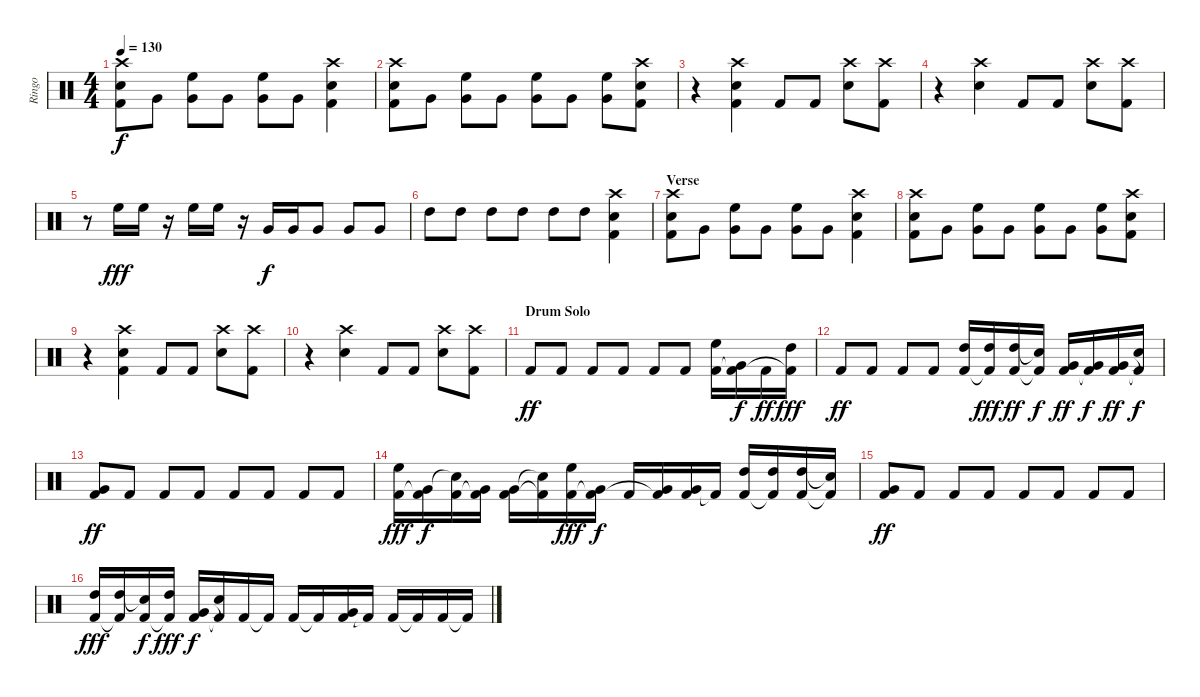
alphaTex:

\track ("Ringo" "Ringo") {instrument percussion}
\staff {score}
\articulation defaults
\ts (4 4)
\tempo 130
\clef neutral
\ks c
("Crash high (hit)" "Snare (hit) 2" "Kick (hit) 2").8{dy f} "Very Low Tom (hit)".8 ("High Floor Tom (hit)" "Very Low Tom (hit)").8 "Very Low Tom (hit)".8 ("High Floor Tom (hit)" "Very Low Tom (hit)").8 "Very Low Tom (hit)".8 ("Crash high (hit)" "Snare (hit) 2" "Kick (hit) 2").4 |
("Crash high (hit)" "Snare (hit) 2" "Kick (hit) 2").8 "Very Low Tom (hit)".8 ("High Floor Tom (hit)" "Very Low Tom (hit)").8 "Very Low Tom (hit)".8 ("High Floor Tom (hit)" "Very Low Tom (hit)").8 "Very Low Tom (hit)".8 ("High Floor Tom (hit)" "Very Low Tom (hit)").8 ("Crash high (hit)" "Snare (hit) 2" "Kick (hit) 2").8 |
r.4 ("Crash high (hit)" "Snare (hit) 2" "Kick (hit) 2").4 "Kick (hit) 2".8 "Kick (hit) 2".8 ("Crash high (hit)" "Snare (hit) 2").8 ("Crash high (hit)" "Kick (hit) 2").8 |
r.4 ("Crash high (hit)" "Snare (hit) 2").4 "Kick (hit) 2".8 "Kick (hit) 2".8 ("Crash high (hit)" "Snare (hit) 2").8 ("Crash high (hit)" "Kick (hit) 2").8 |
r.8 "High Floor Tom (hit)".16{dy fff} "High Floor Tom (hit)".16 r.16 "High Floor Tom (hit)".16 "High Floor Tom (hit)".16 r.16 "Very Low Tom (hit)".16{dy f} "Very Low Tom (hit)".16 "Very Low Tom (hit)".8 "Very Low Tom (hit)".8 "Very Low Tom (hit)".8 |
"High Tom (hit)".8 "High Tom (hit)".8 "High Tom (hit)".8 "High Tom (hit)".8 "High Tom (hit)".8 "High Tom (hit)".8 ("Crash high (hit)" "Snare (hit) 2" "Kick (hit) 2").4 |
\section ("" "Verse")
("Crash high (hit)" "Snare (hit) 2" "Kick (hit) 2").8 "Very Low Tom (hit)".8 ("High Floor Tom (hit)" "Very Low Tom (hit)").8 "Very Low Tom (hit)".8 ("High Floor Tom (hit)" "Very Low Tom (hit)").8 "Very Low Tom (hit)".8 ("Crash high (hit)" "Snare (hit) 2" "Kick (hit) 2").4 |
("Crash high (hit)" "Snare (hit) 2" "Kick (hit) 2").8 "Very Low Tom (hit)".8 ("High Floor Tom (hit)" "Very Low Tom (hit)").8 "Very Low Tom (hit)".8 ("High Floor Tom (hit)" "Very Low Tom (hit)").8 "Very Low Tom (hit)".8 ("High Floor Tom (hit)" "Very Low Tom (hit)").8 ("Crash high (hit)" "Snare (hit) 2" "Kick (hit) 2").8 |
r.4 ("Crash high (hit)" "Snare (hit) 2" "Kick (hit) 2").4 "Kick (hit) 2".8 "Kick (hit) 2".8 ("Crash high (hit)" "Snare (hit) 2").8 ("Crash high (hit)" "Kick (hit) 2").8 |
r.4 ("Crash high (hit)" "Snare (hit) 2").4 "Kick (hit) 2".8 "Kick (hit) 2".8 ("Crash high (hit)" "Snare (hit) 2").8 ("Crash high (hit)" "Kick (hit) 2").8 |
\section ("" "Drum Solo")
"Kick (hit) 2".8{dy ff} "Kick (hit) 2".8 "Kick (hit) 2".8 "Kick (hit) 2".8 "Kick (hit) 2".8 "Kick (hit) 2".8 ("High Floor Tom (hit)" "Kick (hit) 2").16 ("Very Low Tom (hit)" "Kick (hit) 2"{t}).16{dy f} "Kick (hit) 2".16{dy ff} ("High Tom (hit)" "Kick (hit) 2"{t}).16{dy fff} |
"Kick (hit) 2".8{dy ff} "Kick (hit) 2".8 "Kick (hit) 2".8 "Kick (hit) 2".8 ("High Tom (hit)" "Kick (hit) 2").16 ("High Tom (hit)" "Kick (hit) 2"{t}).16{dy fff} ("High Tom (hit)" "Kick (hit) 2").16{dy ff} ("Snare (hit)"{t} "Kick (hit) 2"{t}).16{dy f} ("Very Low Tom (hit)" "Kick (hit) 2").16{dy ff} ("Very Low Tom (hit)" "Kick (hit) 2"{t}).16{dy f} ("Very Low Tom (hit)" "Kick (hit) 2").16{dy ff} ("Snare (hit)"{t} "Kick (hit) 2"{t}).16{dy f} |
("Very Low Tom (hit)" "Kick (hit) 2").8{dy ff} "Kick (hit) 2".8 "Kick (hit) 2".8 "Kick (hit) 2".8 "Kick (hit) 2".8 "Kick (hit) 2".8 "Kick (hit) 2".8 "Kick (hit) 2".8 |
("High Floor Tom (hit)" "Kick (hit) 2").16{dy fff} ("Very Low Tom (hit)" "Kick (hit) 2"{t}).16{dy f} ("Snare (hit)"{t} "Kick (hit) 2").16 ("Very Low Tom (hit)" "Kick (hit) 2"{t}).16 ("Very Low Tom (hit)" "Kick (hit) 2").16 ("Snare (hit)"{t} "Kick (hit) 2"{t}).16 ("High Floor Tom (hit)" "Kick (hit) 2").16{dy fff} ("Very Low Tom (hit)" "Kick (hit) 2"{t}).16{dy f} "Kick (hit) 2".16 ("Very Low Tom (hit)" "Kick (hit) 2"{t}).16 ("Very Low Tom (hit)" "Kick (hit) 2").16 "Kick (hit) 2"{t}.16 ("High Tom (hit)" "Kick (hit) 2").16 ("High Tom (hit)" "Kick (hit) 2"{t}).16 ("High Tom (hit)" "Kick (hit) 2").16 ("Snare (hit)"{t} "Kick (hit) 2"{t}).16 |
("Very Low Tom (hit)" "Kick (hit) 2").8{dy ff} "Kick (hit) 2".8 "Kick (hit) 2".8 "Kick (hit) 2".8 "Kick (hit) 2".8 "Kick (hit) 2".8 "Kick (hit) 2".8 "Kick (hit) 2".8 |
("High Tom (hit)" "Kick (hit) 2").16{dy fff} ("High Tom (hit)" "Kick (hit) 2"{t}).16 ("Snare (hit)"{t} "Kick (hit) 2").16{dy f} ("High Tom (hit)" "Kick (hit) 2"{t}).16{dy fff} ("Very Low Tom (hit)" "Kick (hit) 2").16{dy f} ("Snare (hit)"{t} "Kick (hit) 2"{t}).16 "Kick (hit) 2".16 "Kick (hit) 2"{t}.16 "Kick (hit) 2".16 "Kick (hit) 2"{t}.16 ("Very Low Tom (hit)" "Kick (hit) 2").16 "Kick (hit) 2"{t}.16 "Kick (hit) 2".16 "Kick (hit) 2"{t}.16 "Kick (hit) 2".16 "Kick (hit) 2"{t}.16
